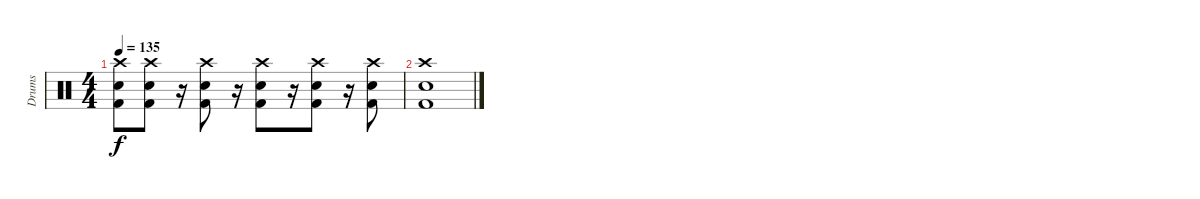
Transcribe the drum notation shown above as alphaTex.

\track ("Drums" "Drums") {instrument percussion}
\staff {score}
\articulation defaults
\ts (4 4)
\tempo 135
\clef neutral
\ks c
("Electric Snare (hit)" "Kick (hit) 2" "Crash high (hit)").8{dy f} ("Electric Snare (hit)" "Kick (hit) 2" "Crash high (hit)").8 r.16 ("Electric Snare (hit)" "Kick (hit) 2" "Crash high (hit)").8 r.16 ("Electric Snare (hit)" "Kick (hit) 2" "Crash high (hit)").8 r.16 ("Electric Snare (hit)" "Kick (hit) 2" "Crash high (hit)").8 r.16 ("Electric Snare (hit)" "Kick (hit) 2" "Crash high (hit)").8 |
("Electric Snare (hit)" "Kick (hit) 2" "Crash high (hit)").1
